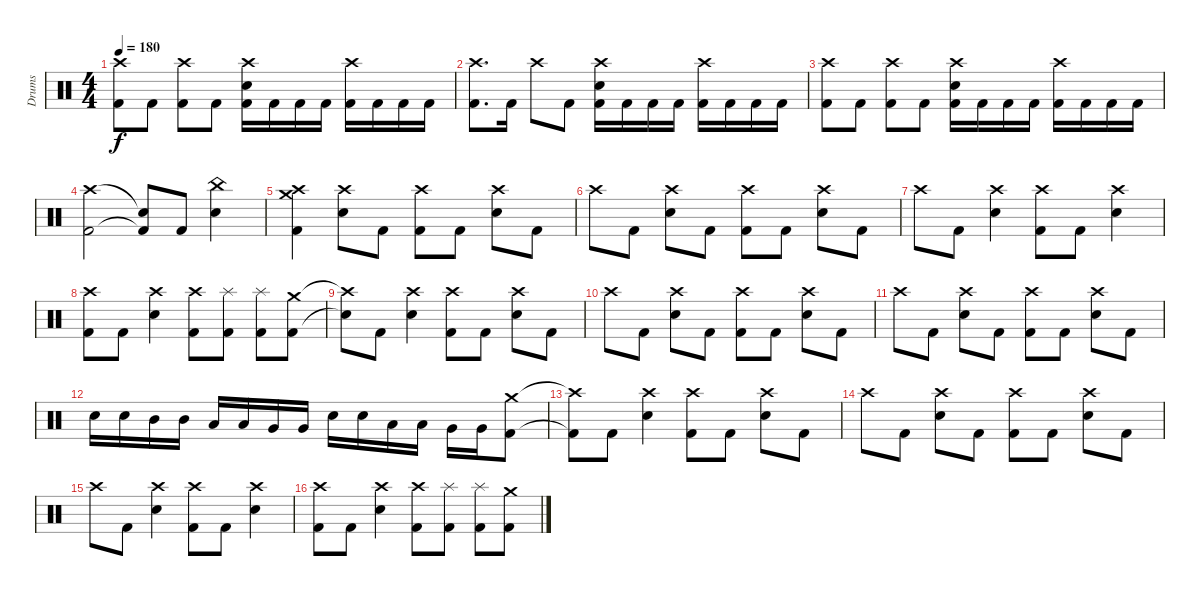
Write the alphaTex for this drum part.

\track ("Drums" "Drums") {instrument percussion}
\staff {score}
\articulation defaults
\ts (4 4)
\tempo 180
\clef neutral
\ks c
("Crash high (hit)" "Kick (hit) 2").8{dy f} "Kick (hit) 2".8 ("Crash high (hit)" "Kick (hit) 2").8 "Kick (hit) 2".8 ("Crash high (hit)" "Electric Snare (hit)" "Kick (hit) 2").16 "Kick (hit) 2".16 "Kick (hit) 2".16 "Kick (hit) 2".16 ("Crash high (hit)" "Kick (hit) 2").16 "Kick (hit) 2".16 "Kick (hit) 2".16 "Kick (hit) 2".16 |
("Crash high (hit)" "Kick (hit) 2").8{d} "Kick (hit) 2".16 "Crash high (hit)".8 "Kick (hit) 2".8 ("Crash high (hit)" "Electric Snare (hit)" "Kick (hit) 2").16 "Kick (hit) 2".16 "Kick (hit) 2".16 "Kick (hit) 2".16 ("Crash high (hit)" "Kick (hit) 2").16 "Kick (hit) 2".16 "Kick (hit) 2".16 "Kick (hit) 2".16 |
("Crash high (hit)" "Kick (hit) 2").8 "Kick (hit) 2".8 ("Crash high (hit)" "Kick (hit) 2").8 "Kick (hit) 2".8 ("Crash high (hit)" "Electric Snare (hit)" "Kick (hit) 2").16 "Kick (hit) 2".16 "Kick (hit) 2".16 "Kick (hit) 2".16 ("Crash high (hit)" "Kick (hit) 2").16 "Kick (hit) 2".16 "Kick (hit) 2".16 "Kick (hit) 2".16 |
("Crash high (hit)" "Kick (hit) 2").2 ("Snare (hit)"{t} "Kick (hit) 2"{t}).8 "Kick (hit) 2".8 ("China (hit)" "Electric Snare (hit)").4 |
("Crash high (hit)" "Crash medium (hit)" "Kick (hit) 2").4 ("Crash high (hit)" "Electric Snare (hit)").8 "Kick (hit) 2".8 ("Crash high (hit)" "Kick (hit) 2").8 "Kick (hit) 2".8 ("Crash high (hit)" "Electric Snare (hit)").8 "Kick (hit) 2".8 |
"Crash high (hit)".8 "Kick (hit) 2".8 ("Crash high (hit)" "Electric Snare (hit)").8 "Kick (hit) 2".8 ("Crash high (hit)" "Kick (hit) 2").8 "Kick (hit) 2".8 ("Crash high (hit)" "Electric Snare (hit)").8 "Kick (hit) 2".8 |
"Crash high (hit)".8 "Kick (hit) 2".8 ("Crash high (hit)" "Electric Snare (hit)").4 ("Crash high (hit)" "Kick (hit) 2").8 "Kick (hit) 2".8 ("Crash high (hit)" "Electric Snare (hit)").4 |
("Crash high (hit)" "Kick (hit) 2").8 "Kick (hit) 2".8 ("Crash high (hit)" "Electric Snare (hit)").4 ("Crash high (hit)" "Kick (hit) 2").8 ("Splash (hit)" "Kick (hit) 2").8 ("Splash (hit)" "Kick (hit) 2").8 ("Crash medium (hit)" "Kick (hit) 2").8 |
("Crash high (hit)"{t} "Snare (hit)"{t}).8 "Kick (hit) 2".8 ("Crash high (hit)" "Electric Snare (hit)").4 ("Crash high (hit)" "Kick (hit) 2").8 "Kick (hit) 2".8 ("Crash high (hit)" "Electric Snare (hit)").8 "Kick (hit) 2".8 |
"Crash high (hit)".8 "Kick (hit) 2".8 ("Crash high (hit)" "Electric Snare (hit)").8 "Kick (hit) 2".8 ("Crash high (hit)" "Kick (hit) 2").8 "Kick (hit) 2".8 ("Crash high (hit)" "Electric Snare (hit)").8 "Kick (hit) 2".8 |
"Crash high (hit)".8 "Kick (hit) 2".8 ("Crash high (hit)" "Electric Snare (hit)").8 "Kick (hit) 2".8 ("Crash high (hit)" "Kick (hit) 2").8 "Kick (hit) 2".8 ("Crash high (hit)" "Electric Snare (hit)").8 "Kick (hit) 2".8 |
"Electric Snare (hit)".16 "Electric Snare (hit)".16 "Mid Tom (hit)".16 "Mid Tom (hit)".16 "Low Tom (hit)".16 "Low Tom (hit)".16 "Very Low Tom (hit)".16 "Very Low Tom (hit)".16 "Electric Snare (hit)".16 "Electric Snare (hit)".16 "Low Tom (hit)".16 "Low Tom (hit)".16 "Very Low Tom (hit)".16 "Very Low Tom (hit)".16 ("Crash medium (hit)" "Kick (hit) 2").8 |
("Crash high (hit)"{t} "Kick (hit) 2"{t}).8 "Kick (hit) 2".8 ("Crash high (hit)" "Electric Snare (hit)").4 ("Crash high (hit)" "Kick (hit) 2").8 "Kick (hit) 2".8 ("Crash high (hit)" "Electric Snare (hit)").8 "Kick (hit) 2".8 |
"Crash high (hit)".8 "Kick (hit) 2".8 ("Crash high (hit)" "Electric Snare (hit)").8 "Kick (hit) 2".8 ("Crash high (hit)" "Kick (hit) 2").8 "Kick (hit) 2".8 ("Crash high (hit)" "Electric Snare (hit)").8 "Kick (hit) 2".8 |
"Crash high (hit)".8 "Kick (hit) 2".8 ("Crash high (hit)" "Electric Snare (hit)").4 ("Crash high (hit)" "Kick (hit) 2").8 "Kick (hit) 2".8 ("Crash high (hit)" "Electric Snare (hit)").4 |
("Crash high (hit)" "Kick (hit) 2").8 "Kick (hit) 2".8 ("Crash high (hit)" "Electric Snare (hit)").4 ("Crash high (hit)" "Kick (hit) 2").8 ("Splash (hit)" "Kick (hit) 2").8 ("Splash (hit)" "Kick (hit) 2").8 ("Crash medium (hit)" "Kick (hit) 2").8
